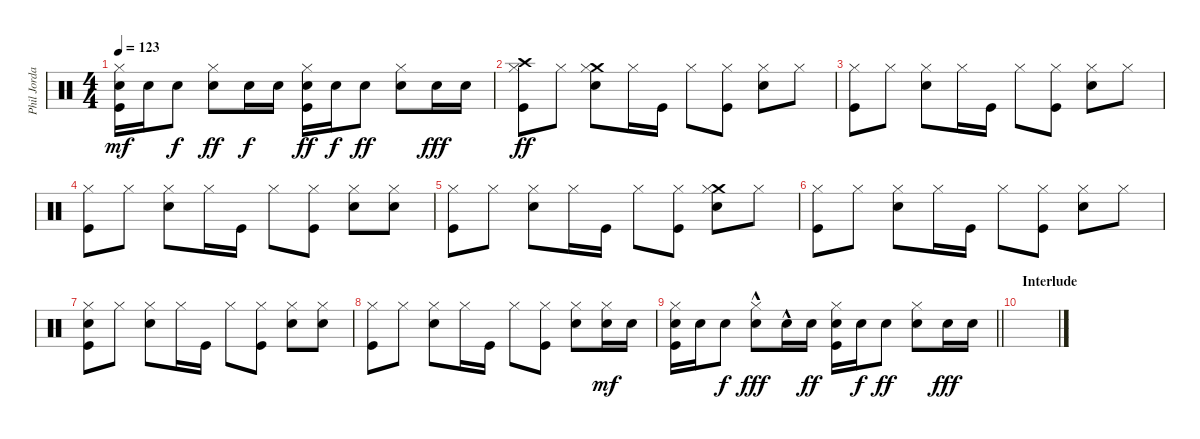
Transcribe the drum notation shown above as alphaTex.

\track ("Phil Jordan" "Phil Jorda") {instrument percussion}
\staff {score}
\articulation defaults
\ts (4 4)
\tempo 123
\clef neutral
\ks c
("Hi-Hat (closed)" "Snare (hit) 2" "Kick (hit)").16{dy mf} "Snare (hit) 2".16 "Snare (hit) 2".8{dy f} ("Hi-Hat (closed)" "Snare (hit) 2").8{dy ff} "Snare (hit) 2".16{dy f} "Snare (hit) 2".16 ("Hi-Hat (closed)" "Snare (hit) 2" "Kick (hit)").16{dy ff} "Snare (hit) 2".16{dy f} "Snare (hit) 2".8{dy ff} ("Hi-Hat (closed)" "Snare (hit) 2").8 "Snare (hit) 2".16{dy fff} "Snare (hit) 2".16 |
("Crash high (hit)" "Hi-Hat (closed)" "Kick (hit)").8{dy ff} "Hi-Hat (closed)".8 ("Crash medium (hit)" "Hi-Hat (closed)" "Snare (hit) 2").8 "Hi-Hat (closed)".16 "Kick (hit)".16 "Hi-Hat (closed)".8 ("Hi-Hat (closed)" "Kick (hit)").8 ("Hi-Hat (closed)" "Snare (hit) 2").8 "Hi-Hat (closed)".8 |
("Hi-Hat (closed)" "Kick (hit)").8 "Hi-Hat (closed)".8 ("Hi-Hat (closed)" "Snare (hit) 2").8 "Hi-Hat (closed)".16 "Kick (hit)".16 "Hi-Hat (closed)".8 ("Hi-Hat (closed)" "Kick (hit)").8 ("Hi-Hat (closed)" "Snare (hit) 2").8 "Hi-Hat (closed)".8 |
("Hi-Hat (closed)" "Kick (hit)").8 "Hi-Hat (closed)".8 ("Hi-Hat (closed)" "Snare (hit) 2").8 "Hi-Hat (closed)".16 "Kick (hit)".16 "Hi-Hat (closed)".8 ("Hi-Hat (closed)" "Kick (hit)").8 ("Hi-Hat (closed)" "Snare (hit) 2").8 ("Hi-Hat (closed)" "Snare (hit) 2").8 |
("Hi-Hat (closed)" "Kick (hit)").8 "Hi-Hat (closed)".8 ("Hi-Hat (closed)" "Snare (hit) 2").8 "Hi-Hat (closed)".16 "Kick (hit)".16 "Hi-Hat (closed)".8 ("Hi-Hat (closed)" "Kick (hit)").8 ("Crash medium (hit)" "Hi-Hat (closed)" "Snare (hit) 2").8 "Hi-Hat (closed)".8 |
("Hi-Hat (closed)" "Kick (hit)").8 "Hi-Hat (closed)".8 ("Hi-Hat (closed)" "Snare (hit) 2").8 "Hi-Hat (closed)".16 "Kick (hit)".16 "Hi-Hat (closed)".8 ("Hi-Hat (closed)" "Kick (hit)").8 ("Hi-Hat (closed)" "Snare (hit) 2").8 "Hi-Hat (closed)".8 |
("Hi-Hat (closed)" "Snare (hit) 2" "Kick (hit)").8 "Hi-Hat (closed)".8 ("Hi-Hat (closed)" "Snare (hit) 2").8 "Hi-Hat (closed)".16 "Kick (hit)".16 "Hi-Hat (closed)".8 ("Hi-Hat (closed)" "Kick (hit)").8 ("Hi-Hat (closed)" "Snare (hit) 2").8 ("Hi-Hat (closed)" "Snare (hit) 2").8 |
("Hi-Hat (closed)" "Kick (hit)").8 "Hi-Hat (closed)".8 ("Hi-Hat (closed)" "Snare (hit) 2").8 "Hi-Hat (closed)".16 "Kick (hit)".16 "Hi-Hat (closed)".8 ("Hi-Hat (closed)" "Kick (hit)").8 ("Hi-Hat (closed)" "Snare (hit) 2").8 ("Hi-Hat (closed)" "Snare (hit) 2").16{dy mf} "Snare (hit) 2".16 |
\barLineRight lightlight
("Hi-Hat (closed)" "Snare (hit) 2" "Kick (hit)").16 "Snare (hit) 2".16 "Snare (hit) 2".8{dy f} ("Hi-Hat (closed)" "Snare (hit) 2"{hac}).8{dy fff} "Snare (hit) 2"{hac}.16 "Snare (hit) 2".16{dy ff} ("Hi-Hat (closed)" "Snare (hit) 2" "Kick (hit)").16 "Snare (hit) 2".16{dy f} "Snare (hit) 2".8{dy ff} ("Hi-Hat (closed)" "Snare (hit) 2").8 "Snare (hit) 2".16{dy fff} "Snare (hit) 2".16 |
\section ("" "Interlude")
